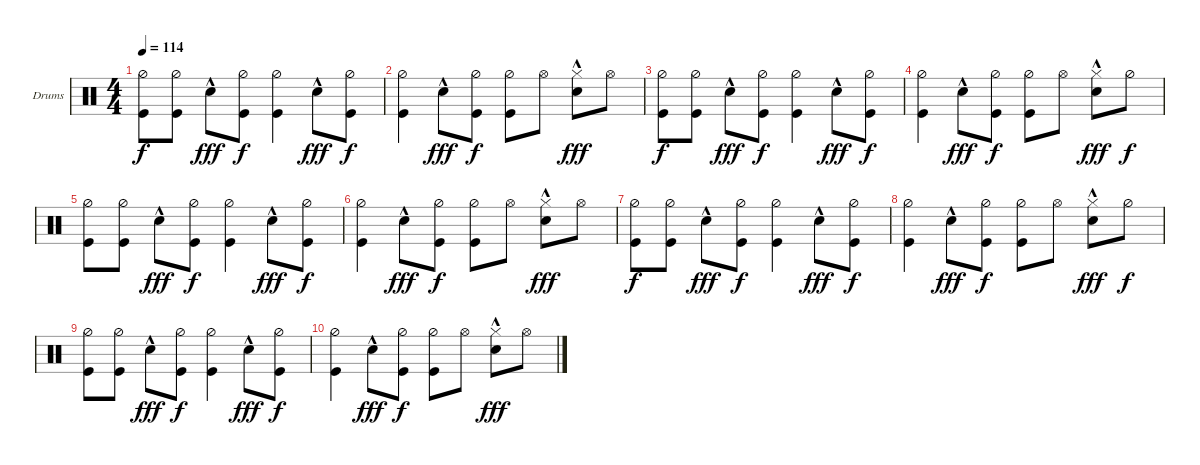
\defaultSystemsLayout 4
\bracketExtendMode groupsimilarinstruments
\firstSystemTrackNameOrientation horizontal
\otherSystemsTrackNameOrientation horizontal
\track ("Drumkit" "Drums") {instrument percussion}
\staff {score}
\articulation defaults
\ts (4 4)
\tempo 114
\clef neutral
\ks c
("Hi-Hat (half)" "Kick (hit)").8{dy f} ("Hi-Hat (half)" "Kick (hit)").8 "Snare (hit) 2"{hac}.8{dy fff} ("Kick (hit)" "Hi-Hat (half)").8{dy f} ("Kick (hit)" "Hi-Hat (half)").4 "Snare (hit) 2"{hac}.8{dy fff} ("Kick (hit)" "Hi-Hat (half)").8{dy f} |
("Kick (hit)" "Hi-Hat (half)").4 "Snare (hit) 2"{hac}.8{dy fff} ("Kick (hit)" "Hi-Hat (half)").8{dy f} ("Kick (hit)" "Hi-Hat (half)").8 "Hi-Hat (open)".8 ("Snare (hit) 2"{hac} "Hi-Hat (closed)").8{dy fff} "Hi-Hat (open)".8 |
("Hi-Hat (half)" "Kick (hit)").8{dy f} ("Hi-Hat (half)" "Kick (hit)").8 "Snare (hit) 2"{hac}.8{dy fff} ("Kick (hit)" "Hi-Hat (half)").8{dy f} ("Kick (hit)" "Hi-Hat (half)").4 "Snare (hit) 2"{hac}.8{dy fff} ("Kick (hit)" "Hi-Hat (half)").8{dy f} |
("Kick (hit)" "Hi-Hat (half)").4 "Snare (hit) 2"{hac}.8{dy fff} ("Kick (hit)" "Hi-Hat (half)").8{dy f} ("Kick (hit)" "Hi-Hat (half)").8 "Hi-Hat (open)".8 ("Hi-Hat (closed)" "Snare (hit) 2"{hac}).8{dy fff} "Hi-Hat (half)".8{dy f} |
("Hi-Hat (half)" "Kick (hit)").8 ("Hi-Hat (half)" "Kick (hit)").8 "Snare (hit) 2"{hac}.8{dy fff} ("Kick (hit)" "Hi-Hat (half)").8{dy f} ("Kick (hit)" "Hi-Hat (half)").4 "Snare (hit) 2"{hac}.8{dy fff} ("Kick (hit)" "Hi-Hat (half)").8{dy f} |
("Kick (hit)" "Hi-Hat (half)").4 "Snare (hit) 2"{hac}.8{dy fff} ("Kick (hit)" "Hi-Hat (half)").8{dy f} ("Kick (hit)" "Hi-Hat (half)").8 "Hi-Hat (open)".8 ("Snare (hit) 2"{hac} "Hi-Hat (closed)").8{dy fff} "Hi-Hat (open)".8 |
("Hi-Hat (half)" "Kick (hit)").8{dy f} ("Hi-Hat (half)" "Kick (hit)").8 "Snare (hit) 2"{hac}.8{dy fff} ("Kick (hit)" "Hi-Hat (half)").8{dy f} ("Kick (hit)" "Hi-Hat (half)").4 "Snare (hit) 2"{hac}.8{dy fff} ("Kick (hit)" "Hi-Hat (half)").8{dy f} |
("Kick (hit)" "Hi-Hat (half)").4 "Snare (hit) 2"{hac}.8{dy fff} ("Kick (hit)" "Hi-Hat (half)").8{dy f} ("Kick (hit)" "Hi-Hat (half)").8 "Hi-Hat (open)".8 ("Hi-Hat (closed)" "Snare (hit) 2"{hac}).8{dy fff} "Hi-Hat (half)".8{dy f} |
("Hi-Hat (half)" "Kick (hit)").8 ("Hi-Hat (half)" "Kick (hit)").8 "Snare (hit) 2"{hac}.8{dy fff} ("Kick (hit)" "Hi-Hat (half)").8{dy f} ("Kick (hit)" "Hi-Hat (half)").4 "Snare (hit) 2"{hac}.8{dy fff} ("Kick (hit)" "Hi-Hat (half)").8{dy f} |
("Kick (hit)" "Hi-Hat (half)").4 "Snare (hit) 2"{hac}.8{dy fff} ("Kick (hit)" "Hi-Hat (half)").8{dy f} ("Kick (hit)" "Hi-Hat (half)").8 "Hi-Hat (open)".8 ("Snare (hit) 2"{hac} "Hi-Hat (closed)").8{dy fff} "Hi-Hat (open)".8
